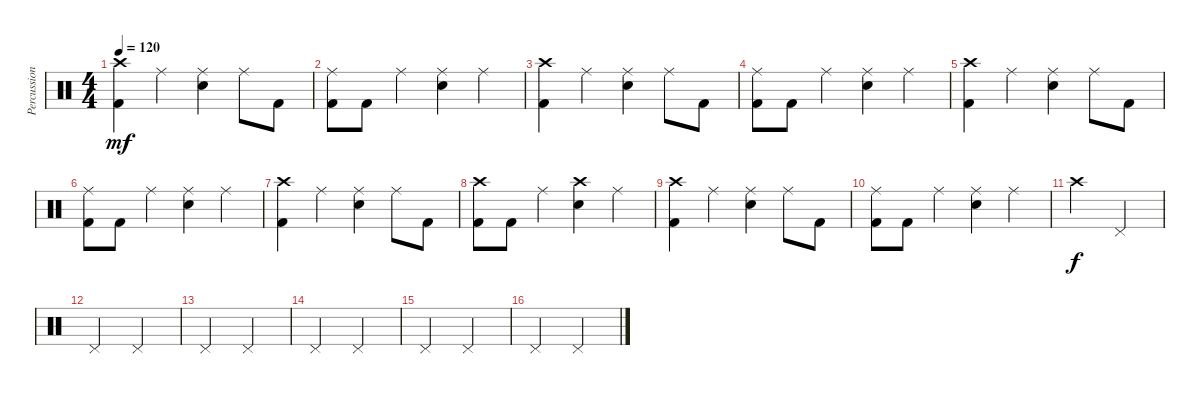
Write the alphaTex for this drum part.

\track ("Percussioni" "Percussion") {instrument percussion}
\staff {score}
\articulation defaults
\ts (4 4)
\tempo 120
\clef neutral
\ks c
("Crash high (hit)" "Kick (hit) 2").4{dy mf} "Ride (middle)".4 ("Ride (middle)" "Snare (hit) 2").4 "Ride (middle)".8 "Kick (hit) 2".8 |
("Ride (middle)" "Kick (hit) 2").8 "Kick (hit) 2".8 "Ride (middle)".4 ("Ride (middle)" "Snare (hit) 2").4 "Ride (middle)".4 |
("Crash high (hit)" "Kick (hit) 2").4 "Ride (middle)".4 ("Ride (middle)" "Snare (hit) 2").4 "Ride (middle)".8 "Kick (hit) 2".8 |
("Ride (middle)" "Kick (hit) 2").8 "Kick (hit) 2".8 "Ride (middle)".4 ("Ride (middle)" "Snare (hit) 2").4 "Ride (middle)".4 |
("Crash high (hit)" "Kick (hit) 2").4 "Ride (middle)".4 ("Ride (middle)" "Snare (hit) 2").4 "Ride (middle)".8 "Kick (hit) 2".8 |
("Ride (middle)" "Kick (hit) 2").8 "Kick (hit) 2".8 "Ride (middle)".4 ("Ride (middle)" "Snare (hit) 2").4 "Ride (middle)".4 |
("Crash high (hit)" "Kick (hit) 2").4 "Ride (middle)".4 ("Ride (middle)" "Snare (hit) 2").4 "Ride (middle)".8 "Kick (hit) 2".8 |
("Crash high (hit)" "Kick (hit) 2").8 "Kick (hit) 2".8 "Ride (middle)".4 ("Crash high (hit)" "Snare (hit) 2").4 "Ride (middle)".4 |
("Crash high (hit)" "Kick (hit) 2").4 "Ride (middle)".4 ("Ride (middle)" "Snare (hit) 2").4 "Ride (middle)".8 "Kick (hit) 2".8 |
("Ride (middle)" "Kick (hit) 2").8 "Kick (hit) 2".8 "Ride (middle)".4 ("Ride (middle)" "Snare (hit) 2").4 "Ride (middle)".4 |
"Crash high (hit)".2{dy f} "Pedal Hi-Hat (hit)".2 |
"Pedal Hi-Hat (hit)".2 "Pedal Hi-Hat (hit)".2 |
"Pedal Hi-Hat (hit)".2 "Pedal Hi-Hat (hit)".2 |
"Pedal Hi-Hat (hit)".2 "Pedal Hi-Hat (hit)".2 |
"Pedal Hi-Hat (hit)".2 "Pedal Hi-Hat (hit)".2 |
"Pedal Hi-Hat (hit)".2 "Pedal Hi-Hat (hit)".2
